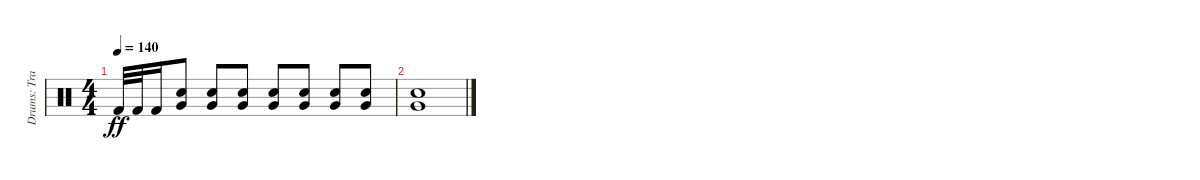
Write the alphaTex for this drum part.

\track ("Drums: Travis Clarke" "Drums: Tra") {instrument percussion}
\staff {score}
\articulation defaults
\ts (4 4)
\tempo 140
\clef neutral
\ks c "Kick (hit) 2".32{dy ff} "Kick (hit) 2".32 "Kick (hit) 2".16
("Snare (hit) 2" "Very Low Tom (hit)").8 ("Snare (hit) 2" "Very Low Tom (hit)").8 ("Snare (hit) 2" "Very Low Tom (hit)").8 ("Snare (hit) 2" "Very Low Tom (hit)").8 ("Snare (hit) 2" "Very Low Tom (hit)").8 ("Snare (hit) 2" "Very Low Tom (hit)").8 ("Snare (hit) 2" "Very Low Tom (hit)").8 |
("Snare (hit) 2" "Very Low Tom (hit)").1
